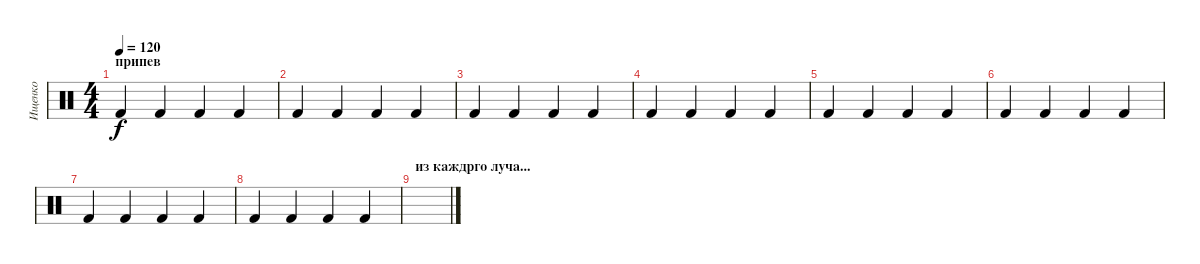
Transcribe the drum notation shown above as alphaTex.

\track ("Ищенко" "Ищенко") {instrument percussion}
\staff {score}
\articulation defaults
\ts (4 4)
\section ("" "припев")
\tempo 120
\clef neutral
\ks c "Kick (hit) 2".4{dy f} "Kick (hit) 2".4 "Kick (hit) 2".4 "Kick (hit) 2".4
|
"Kick (hit) 2".4 "Kick (hit) 2".4 "Kick (hit) 2".4 "Kick (hit) 2".4 |
"Kick (hit) 2".4 "Kick (hit) 2".4 "Kick (hit) 2".4 "Kick (hit) 2".4 |
"Kick (hit) 2".4 "Kick (hit) 2".4 "Kick (hit) 2".4 "Kick (hit) 2".4 |
"Kick (hit) 2".4 "Kick (hit) 2".4 "Kick (hit) 2".4 "Kick (hit) 2".4 |
"Kick (hit) 2".4 "Kick (hit) 2".4 "Kick (hit) 2".4 "Kick (hit) 2".4 |
"Kick (hit) 2".4 "Kick (hit) 2".4 "Kick (hit) 2".4 "Kick (hit) 2".4 |
"Kick (hit) 2".4 "Kick (hit) 2".4 "Kick (hit) 2".4 "Kick (hit) 2".4 |
\section ("" "из каждрго луча...")
